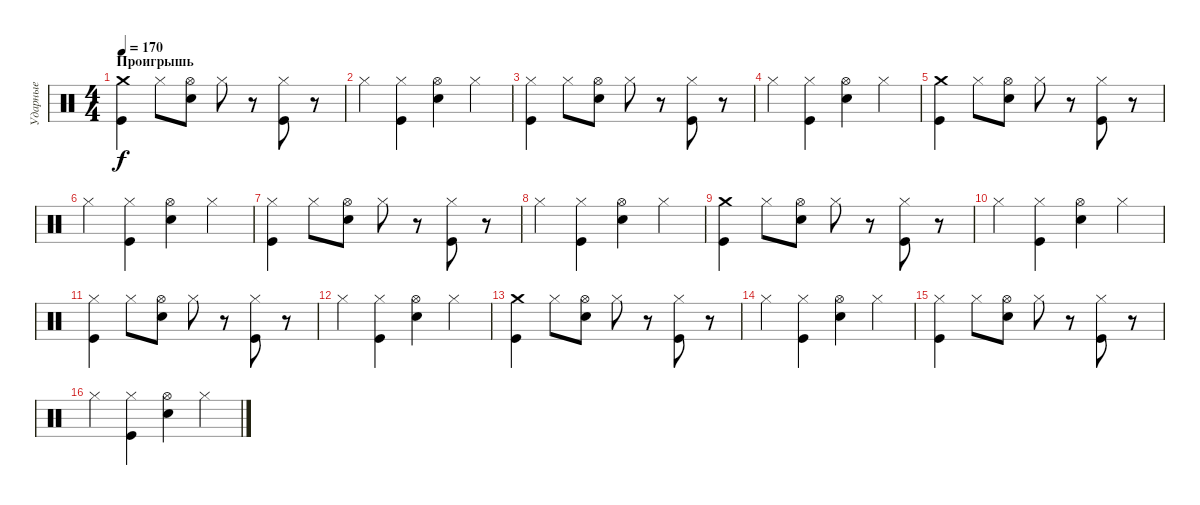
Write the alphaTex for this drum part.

\track ("Ударные" "Ударные") {instrument percussion}
\staff {score}
\articulation defaults
\ts (4 4)
\section ("" "Проигрышь")
\tempo 170
\clef neutral
\ks c
("Kick (hit)" "Crash medium (hit)").4{dy f} "Hi-Hat (closed)".8 ("Snare (hit) 2" "Hi-Hat (open)").8 "Hi-Hat (closed)".8 r.8 ("Kick (hit)" "Hi-Hat (closed)").8 r.8 |
"Hi-Hat (closed)".4 ("Kick (hit)" "Hi-Hat (closed)").4 ("Snare (hit) 2" "Hi-Hat (open)").4 "Hi-Hat (closed)".4 |
("Kick (hit)" "Hi-Hat (closed)").4 "Hi-Hat (closed)".8 ("Snare (hit) 2" "Hi-Hat (open)").8 "Hi-Hat (closed)".8 r.8 ("Kick (hit)" "Hi-Hat (closed)").8 r.8 |
"Hi-Hat (closed)".4 ("Kick (hit)" "Hi-Hat (closed)").4 ("Snare (hit) 2" "Hi-Hat (open)").4 "Hi-Hat (closed)".4 |
("Kick (hit)" "Crash medium (hit)").4 "Hi-Hat (closed)".8 ("Snare (hit) 2" "Hi-Hat (open)").8 "Hi-Hat (closed)".8 r.8 ("Kick (hit)" "Hi-Hat (closed)").8 r.8 |
"Hi-Hat (closed)".4 ("Kick (hit)" "Hi-Hat (closed)").4 ("Snare (hit) 2" "Hi-Hat (open)").4 "Hi-Hat (closed)".4 |
("Kick (hit)" "Hi-Hat (closed)").4 "Hi-Hat (closed)".8 ("Snare (hit) 2" "Hi-Hat (open)").8 "Hi-Hat (closed)".8 r.8 ("Kick (hit)" "Hi-Hat (closed)").8 r.8 |
"Hi-Hat (closed)".4 ("Kick (hit)" "Hi-Hat (closed)").4 ("Snare (hit) 2" "Hi-Hat (open)").4 "Hi-Hat (closed)".4 |
("Kick (hit)" "Crash medium (hit)").4 "Hi-Hat (closed)".8 ("Snare (hit) 2" "Hi-Hat (open)").8 "Hi-Hat (closed)".8 r.8 ("Kick (hit)" "Hi-Hat (closed)").8 r.8 |
"Hi-Hat (closed)".4 ("Kick (hit)" "Hi-Hat (closed)").4 ("Snare (hit) 2" "Hi-Hat (open)").4 "Hi-Hat (closed)".4 |
("Kick (hit)" "Hi-Hat (closed)").4 "Hi-Hat (closed)".8 ("Snare (hit) 2" "Hi-Hat (open)").8 "Hi-Hat (closed)".8 r.8 ("Kick (hit)" "Hi-Hat (closed)").8 r.8 |
"Hi-Hat (closed)".4 ("Kick (hit)" "Hi-Hat (closed)").4 ("Snare (hit) 2" "Hi-Hat (open)").4 "Hi-Hat (closed)".4 |
("Kick (hit)" "Crash medium (hit)").4 "Hi-Hat (closed)".8 ("Snare (hit) 2" "Hi-Hat (open)").8 "Hi-Hat (closed)".8 r.8 ("Kick (hit)" "Hi-Hat (closed)").8 r.8 |
"Hi-Hat (closed)".4 ("Kick (hit)" "Hi-Hat (closed)").4 ("Snare (hit) 2" "Hi-Hat (open)").4 "Hi-Hat (closed)".4 |
("Kick (hit)" "Hi-Hat (closed)").4 "Hi-Hat (closed)".8 ("Snare (hit) 2" "Hi-Hat (open)").8 "Hi-Hat (closed)".8 r.8 ("Kick (hit)" "Hi-Hat (closed)").8 r.8 |
"Hi-Hat (closed)".4 ("Kick (hit)" "Hi-Hat (closed)").4 ("Snare (hit) 2" "Hi-Hat (open)").4 "Hi-Hat (closed)".4
